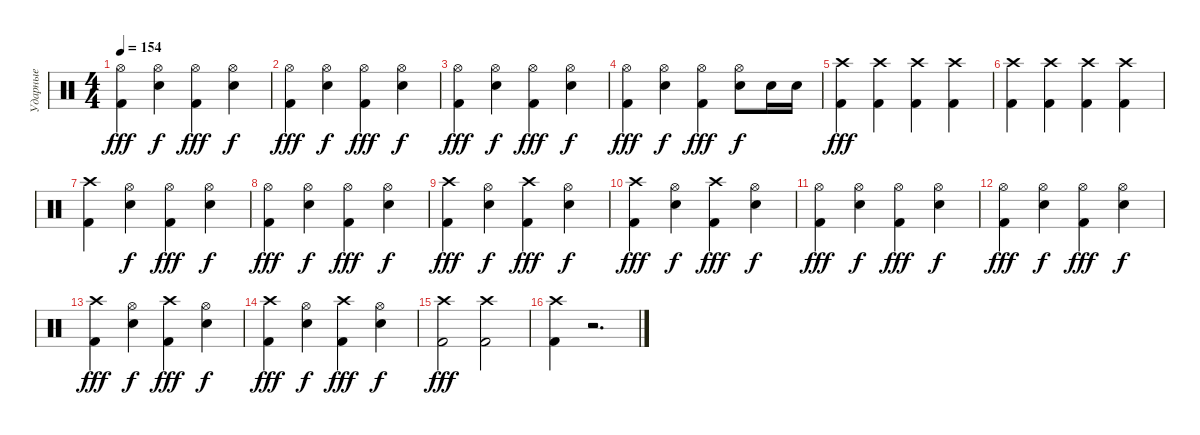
\track ("Ударные" "Ударные") {instrument percussion}
\staff
\articulation defaults
\ts (4 4)
\tempo 154
\clef neutral
\ks c
("Kick (hit) 2" "Hi-Hat (open)").4{dy fff} ("Snare (hit) 2" "Hi-Hat (open)").4{dy f} ("Kick (hit) 2" "Hi-Hat (open)").4{dy fff} ("Snare (hit) 2" "Hi-Hat (open)").4{dy f} |
("Kick (hit) 2" "Hi-Hat (open)").4{dy fff} ("Snare (hit) 2" "Hi-Hat (open)").4{dy f} ("Kick (hit) 2" "Hi-Hat (open)").4{dy fff} ("Snare (hit) 2" "Hi-Hat (open)").4{dy f} |
("Kick (hit) 2" "Hi-Hat (open)").4{dy fff} ("Snare (hit) 2" "Hi-Hat (open)").4{dy f} ("Kick (hit) 2" "Hi-Hat (open)").4{dy fff} ("Snare (hit) 2" "Hi-Hat (open)").4{dy f} |
("Kick (hit) 2" "Hi-Hat (open)").4{dy fff} ("Snare (hit) 2" "Hi-Hat (open)").4{dy f} ("Kick (hit) 2" "Hi-Hat (open)").4{dy fff} ("Snare (hit) 2" "Hi-Hat (open)").8{dy f} "Snare (hit) 2".16 "Snare (hit) 2".16 |
("Kick (hit) 2" "Crash high (hit)").4{dy fff} ("Kick (hit) 2" "Crash high (hit)").4 ("Kick (hit) 2" "Crash high (hit)").4 ("Kick (hit) 2" "Crash high (hit)").4 |
("Kick (hit) 2" "Crash high (hit)").4 ("Kick (hit) 2" "Crash high (hit)").4 ("Kick (hit) 2" "Crash high (hit)").4 ("Kick (hit) 2" "Crash high (hit)").4 |
("Kick (hit) 2" "Crash high (hit)").4 ("Snare (hit) 2" "Hi-Hat (open)").4{dy f} ("Kick (hit) 2" "Hi-Hat (open)").4{dy fff} ("Snare (hit) 2" "Hi-Hat (open)").4{dy f} |
("Kick (hit) 2" "Hi-Hat (open)").4{dy fff} ("Snare (hit) 2" "Hi-Hat (open)").4{dy f} ("Kick (hit) 2" "Hi-Hat (open)").4{dy fff} ("Snare (hit) 2" "Hi-Hat (open)").4{dy f} |
("Kick (hit) 2" "Crash high (hit)").4{dy fff} ("Snare (hit) 2" "Hi-Hat (open)").4{dy f} ("Kick (hit) 2" "Crash high (hit)").4{dy fff} ("Snare (hit) 2" "Hi-Hat (open)").4{dy f} |
("Kick (hit) 2" "Crash high (hit)").4{dy fff} ("Snare (hit) 2" "Hi-Hat (open)").4{dy f} ("Kick (hit) 2" "Crash high (hit)").4{dy fff} ("Snare (hit) 2" "Hi-Hat (open)").4{dy f} |
("Kick (hit) 2" "Hi-Hat (open)").4{dy fff} ("Snare (hit) 2" "Hi-Hat (open)").4{dy f} ("Kick (hit) 2" "Hi-Hat (open)").4{dy fff} ("Snare (hit) 2" "Hi-Hat (open)").4{dy f} |
("Kick (hit) 2" "Hi-Hat (open)").4{dy fff} ("Snare (hit) 2" "Hi-Hat (open)").4{dy f} ("Kick (hit) 2" "Hi-Hat (open)").4{dy fff} ("Snare (hit) 2" "Hi-Hat (open)").4{dy f} |
("Kick (hit) 2" "Crash high (hit)").4{dy fff} ("Snare (hit) 2" "Hi-Hat (open)").4{dy f} ("Kick (hit) 2" "Crash high (hit)").4{dy fff} ("Snare (hit) 2" "Hi-Hat (open)").4{dy f} |
("Kick (hit) 2" "Crash high (hit)").4{dy fff} ("Snare (hit) 2" "Hi-Hat (open)").4{dy f} ("Kick (hit) 2" "Crash high (hit)").4{dy fff} ("Snare (hit) 2" "Hi-Hat (open)").4{dy f} |
("Kick (hit) 2" "Crash high (hit)").2{dy fff} ("Kick (hit) 2" "Crash high (hit)").2 |
("Kick (hit) 2" "Crash high (hit)").4 r.2{d}
